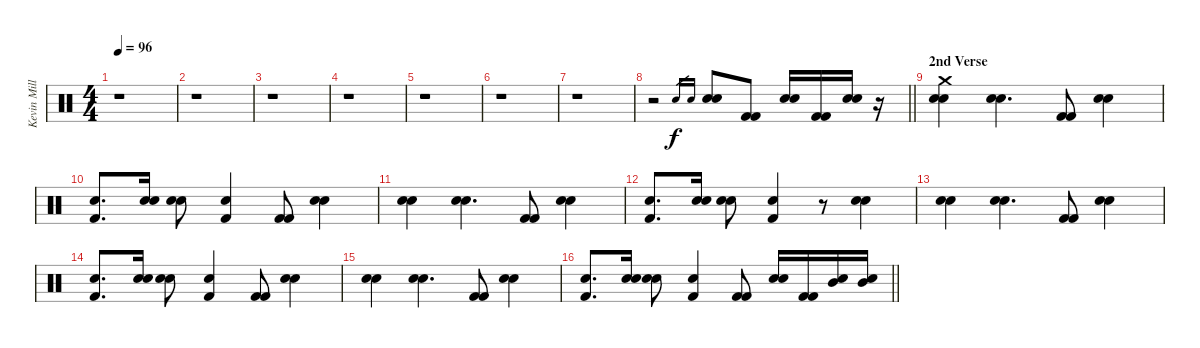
\track ("Kevin Miller (Drums)" "Kevin Mill") {instrument percussion}
\staff {score}
\articulation defaults
\ts (4 4)
\tempo 96
\clef neutral
\ks c
r.1{dy f} |
r.1 |
r.1 |
r.1 |
r.1 |
r.1 |
r.1 |
\barLineRight lightlight
r.2 "Electric Snare (hit)".16{gr} "Electric Snare (hit)".16{gr} ("Electric Snare (hit)" "Electric Snare (hit)").8 ("Kick (hit) 2" "Kick (hit) 2").8 ("Electric Snare (hit)" "Electric Snare (hit)").16 ("Kick (hit) 2" "Kick (hit) 2").16 ("Electric Snare (hit)" "Electric Snare (hit)").16 r.16 |
\section ("" "2nd Verse")
("Electric Snare (hit)" "Electric Snare (hit)" "Crash medium (hit)").4 ("Electric Snare (hit)" "Electric Snare (hit)").4{d} ("Kick (hit) 2" "Kick (hit) 2").8 ("Electric Snare (hit)" "Electric Snare (hit)").4 |
("Electric Snare (hit)" "Kick (hit) 2").8{d} ("Electric Snare (hit)" "Electric Snare (hit)").16 ("Electric Snare (hit)" "Electric Snare (hit)").8 ("Electric Snare (hit)" "Kick (hit) 2").4 ("Kick (hit) 2" "Kick (hit) 2").8 ("Electric Snare (hit)" "Electric Snare (hit)").4 |
("Electric Snare (hit)" "Electric Snare (hit)").4 ("Electric Snare (hit)" "Electric Snare (hit)").4{d} ("Kick (hit) 2" "Kick (hit) 2").8 ("Electric Snare (hit)" "Electric Snare (hit)").4 |
("Electric Snare (hit)" "Kick (hit) 2").8{d} ("Electric Snare (hit)" "Electric Snare (hit)").16 ("Electric Snare (hit)" "Electric Snare (hit)").8 ("Electric Snare (hit)" "Kick (hit) 2").4 r.8 ("Electric Snare (hit)" "Electric Snare (hit)").4 |
("Electric Snare (hit)" "Electric Snare (hit)").4 ("Electric Snare (hit)" "Electric Snare (hit)").4{d} ("Kick (hit) 2" "Kick (hit) 2").8 ("Electric Snare (hit)" "Electric Snare (hit)").4 |
("Electric Snare (hit)" "Kick (hit) 2").8{d} ("Electric Snare (hit)" "Electric Snare (hit)").16 ("Electric Snare (hit)" "Electric Snare (hit)").8 ("Electric Snare (hit)" "Kick (hit) 2").4 ("Kick (hit) 2" "Kick (hit) 2").8 ("Electric Snare (hit)" "Electric Snare (hit)").4 |
("Electric Snare (hit)" "Electric Snare (hit)").4 ("Electric Snare (hit)" "Electric Snare (hit)").4{d} ("Kick (hit) 2" "Kick (hit) 2").8 ("Electric Snare (hit)" "Electric Snare (hit)").4 |
\barLineRight lightlight
("Electric Snare (hit)" "Kick (hit) 2").8{d} ("Electric Snare (hit)" "Electric Snare (hit)").16 ("Electric Snare (hit)" "Electric Snare (hit)").8 ("Electric Snare (hit)" "Kick (hit) 2").4 ("Kick (hit) 2" "Kick (hit) 2").8 ("Electric Snare (hit)" "Electric Snare (hit)").16 ("Kick (hit) 2" "Kick (hit) 2").16 ("Electric Snare (hit)" "Mid Tom (hit)").16 ("Electric Snare (hit)" "Mid Tom (hit)").16
